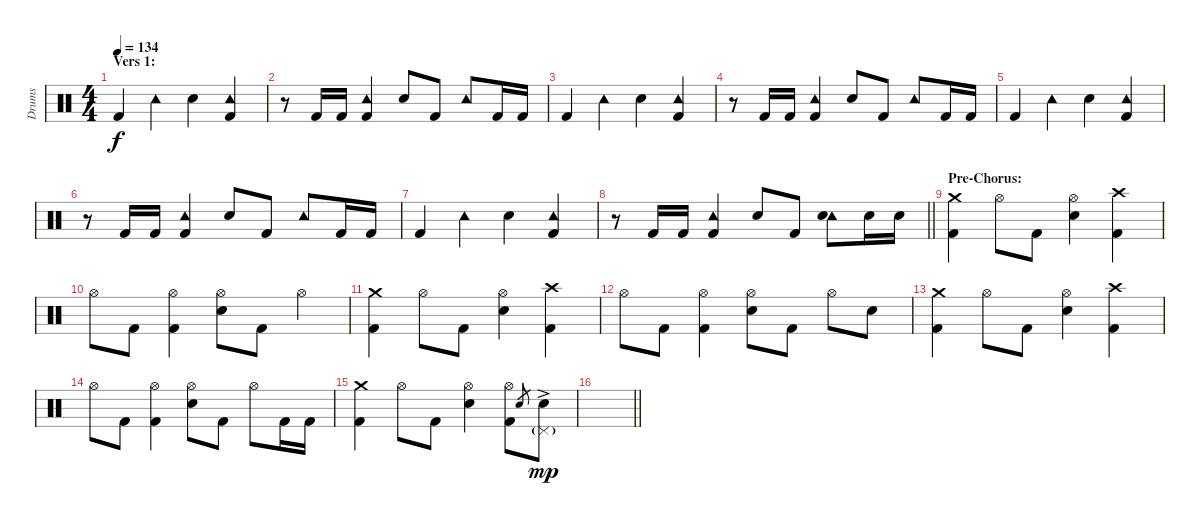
\track ("Drums" "Drums") {instrument percussion}
\staff {score}
\articulation defaults
\ts (4 4)
\section ("" "Vers 1:")
\tempo 134
\clef neutral
\ks c "Kick (hit) 2".4{dy f} "Tambourine (hit)".4 "Hand Clap (hit)".4
("Tambourine (hit)" "Kick (hit) 2").4 |
r.8 "Kick (hit) 2".16 "Kick (hit) 2".16 ("Tambourine (hit)" "Kick (hit) 2").4 "Hand Clap (hit)".8 "Kick (hit) 2".8 "Tambourine (hit)".8 "Kick (hit) 2".16 "Kick (hit) 2".16 |
"Kick (hit) 2".4 "Tambourine (hit)".4 "Hand Clap (hit)".4 ("Tambourine (hit)" "Kick (hit) 2").4 |
r.8 "Kick (hit) 2".16 "Kick (hit) 2".16 ("Tambourine (hit)" "Kick (hit) 2").4 "Hand Clap (hit)".8 "Kick (hit) 2".8 "Tambourine (hit)".8 "Kick (hit) 2".16 "Kick (hit) 2".16 |
"Kick (hit) 2".4 "Tambourine (hit)".4 "Hand Clap (hit)".4 ("Tambourine (hit)" "Kick (hit) 2").4 |
r.8 "Kick (hit) 2".16 "Kick (hit) 2".16 ("Tambourine (hit)" "Kick (hit) 2").4 "Hand Clap (hit)".8 "Kick (hit) 2".8 "Tambourine (hit)".8 "Kick (hit) 2".16 "Kick (hit) 2".16 |
"Kick (hit) 2".4 "Tambourine (hit)".4 "Hand Clap (hit)".4 ("Tambourine (hit)" "Kick (hit) 2").4 |
\barLineRight lightlight
r.8 "Kick (hit) 2".16 "Kick (hit) 2".16 ("Tambourine (hit)" "Kick (hit) 2").4 "Hand Clap (hit)".8 "Kick (hit) 2".8 ("Tambourine (hit)" "Electric Snare (hit)").8 "Electric Snare (hit)".16 "Electric Snare (hit)".16 |
\section ("" "Pre-Chorus:")
("Crash medium (hit)" "Kick (hit) 2").4 "Hi-Hat (open)".8 "Kick (hit) 2".8 ("Hi-Hat (open)" "Electric Snare (hit)").4 ("Kick (hit) 2" "Crash high (hit)").4 |
"Hi-Hat (open)".8 "Kick (hit) 2".8 ("Hi-Hat (open)" "Kick (hit) 2").4 ("Hi-Hat (open)" "Electric Snare (hit)").8 "Kick (hit) 2".8 "Hi-Hat (open)".4 |
("Crash medium (hit)" "Kick (hit) 2").4 "Hi-Hat (open)".8 "Kick (hit) 2".8 ("Hi-Hat (open)" "Electric Snare (hit)").4 ("Kick (hit) 2" "Crash high (hit)").4 |
"Hi-Hat (open)".8 "Kick (hit) 2".8 ("Hi-Hat (open)" "Kick (hit) 2").4 ("Hi-Hat (open)" "Electric Snare (hit)").8 "Kick (hit) 2".8 "Hi-Hat (open)".8 "Electric Snare (hit)".8 |
("Crash medium (hit)" "Kick (hit) 2").4 "Hi-Hat (open)".8 "Kick (hit) 2".8 ("Hi-Hat (open)" "Electric Snare (hit)").4 ("Kick (hit) 2" "Crash high (hit)").4 |
"Hi-Hat (open)".8 "Kick (hit) 2".8 ("Hi-Hat (open)" "Kick (hit) 2").4 ("Hi-Hat (open)" "Electric Snare (hit)").8 "Kick (hit) 2".8 "Hi-Hat (open)".8 "Kick (hit) 2".16 "Kick (hit) 2".16 |
("Crash medium (hit)" "Kick (hit) 2").4 "Hi-Hat (open)".8 "Kick (hit) 2".8 ("Hi-Hat (open)" "Electric Snare (hit)").4 ("Hi-Hat (open)" "Kick (hit) 2").8 "Electric Snare (hit)".8{gr} ("Electric Snare (hit)"{ac} "Pedal Hi-Hat (hit)"{g}).8{dy mp} |
\barLineRight lightlight
